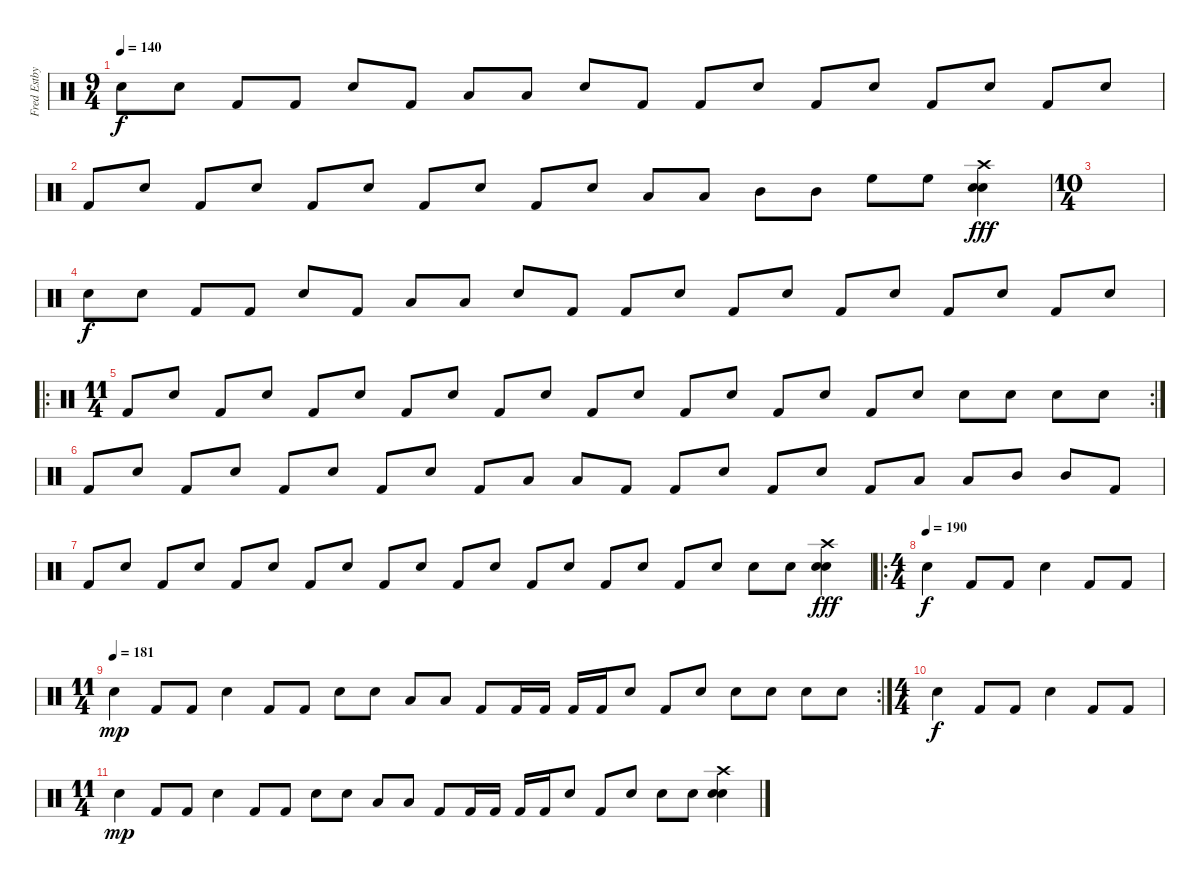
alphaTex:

\track ("Fred Estby" "Fred Estby") {instrument percussion}
\staff {score}
\articulation defaults
\ts (9 4)
\tempo 140
\clef neutral
\ks c "Electric Snare (hit)".8{dy f} "Electric Snare (hit)".8 "Kick (hit) 2".8 "Kick (hit) 2".8 "Electric Snare (hit)".8 "Kick (hit) 2".8 "Low Tom (hit)".8 "Low Tom (hit)".8 "Electric Snare (hit)".8 "Kick (hit) 2".8 "Kick (hit) 2".8 "Electric Snare (hit)".8 "Kick (hit) 2".8 "Electric Snare (hit)".8 "Kick (hit) 2".8 "Electric Snare (hit)".8 "Kick (hit) 2".8 "Electric Snare (hit)".8
|
"Kick (hit) 2".8 "Electric Snare (hit)".8 "Kick (hit) 2".8 "Electric Snare (hit)".8 "Kick (hit) 2".8 "Electric Snare (hit)".8 "Kick (hit) 2".8 "Electric Snare (hit)".8 "Kick (hit) 2".8 "Electric Snare (hit)".8 "Low Tom (hit)".8 "Low Tom (hit)".8 "Mid Tom (hit)".8 "Mid Tom (hit)".8 "High Floor Tom (hit)".8 "High Floor Tom (hit)".8 ("Electric Snare (hit)" "Electric Snare (hit)" "Crash high (hit)").4{dy fff} |
\ts (10 4)
|
"Electric Snare (hit)".8{dy f} "Electric Snare (hit)".8 "Kick (hit) 2".8 "Kick (hit) 2".8 "Electric Snare (hit)".8 "Kick (hit) 2".8 "Low Tom (hit)".8 "Low Tom (hit)".8 "Electric Snare (hit)".8 "Kick (hit) 2".8 "Kick (hit) 2".8 "Electric Snare (hit)".8 "Kick (hit) 2".8 "Electric Snare (hit)".8 "Kick (hit) 2".8 "Electric Snare (hit)".8 "Kick (hit) 2".8 "Electric Snare (hit)".8 "Kick (hit) 2".8 "Electric Snare (hit)".8 |
\ro
\rc 2
\ts (11 4)
"Kick (hit) 2".8 "Electric Snare (hit)".8 "Kick (hit) 2".8 "Electric Snare (hit)".8 "Kick (hit) 2".8 "Electric Snare (hit)".8 "Kick (hit) 2".8 "Electric Snare (hit)".8 "Kick (hit) 2".8 "Electric Snare (hit)".8 "Kick (hit) 2".8 "Electric Snare (hit)".8 "Kick (hit) 2".8 "Electric Snare (hit)".8 "Kick (hit) 2".8 "Electric Snare (hit)".8 "Kick (hit) 2".8 "Electric Snare (hit)".8 "Electric Snare (hit)".8 "Electric Snare (hit)".8 "Electric Snare (hit)".8 "Electric Snare (hit)".8 |
"Kick (hit) 2".8 "Electric Snare (hit)".8 "Kick (hit) 2".8 "Electric Snare (hit)".8 "Kick (hit) 2".8 "Electric Snare (hit)".8 "Kick (hit) 2".8 "Electric Snare (hit)".8 "Kick (hit) 2".8 "Low Tom (hit)".8 "Low Tom (hit)".8 "Kick (hit) 2".8 "Kick (hit) 2".8 "Electric Snare (hit)".8 "Kick (hit) 2".8 "Electric Snare (hit)".8 "Kick (hit) 2".8 "Low Tom (hit)".8 "Low Tom (hit)".8 "Mid Tom (hit)".8 "Mid Tom (hit)".8 "Kick (hit) 2".8 |
"Kick (hit) 2".8 "Electric Snare (hit)".8 "Kick (hit) 2".8 "Electric Snare (hit)".8 "Kick (hit) 2".8 "Electric Snare (hit)".8 "Kick (hit) 2".8 "Electric Snare (hit)".8 "Kick (hit) 2".8 "Electric Snare (hit)".8 "Kick (hit) 2".8 "Electric Snare (hit)".8 "Kick (hit) 2".8 "Electric Snare (hit)".8 "Kick (hit) 2".8 "Electric Snare (hit)".8 "Kick (hit) 2".8 "Electric Snare (hit)".8 "Electric Snare (hit)".8 "Electric Snare (hit)".8 ("Electric Snare (hit)" "Electric Snare (hit)" "Crash high (hit)").4{dy fff} |
\ro
\ts (4 4)
\tempo 160
\tempo (190)
"Electric Snare (hit)".4{dy f} "Kick (hit) 2".8 "Kick (hit) 2".8 "Electric Snare (hit)".4 "Kick (hit) 2".8 "Kick (hit) 2".8 |
\rc 2
\ts (11 4)
\tempo (181)
"Electric Snare (hit)".4{dy mp} "Kick (hit) 2".8 "Kick (hit) 2".8 "Electric Snare (hit)".4 "Kick (hit) 2".8 "Kick (hit) 2".8 "Electric Snare (hit)".8 "Electric Snare (hit)".8 "Low Tom (hit)".8 "Low Tom (hit)".8 "Kick (hit) 2".8 "Kick (hit) 2".16 "Kick (hit) 2".16 "Kick (hit) 2".16 "Kick (hit) 2".16 "Electric Snare (hit)".8 "Kick (hit) 2".8 "Electric Snare (hit)".8 "Electric Snare (hit)".8 "Electric Snare (hit)".8 "Electric Snare (hit)".8 "Electric Snare (hit)".8 |
\ts (4 4)
"Electric Snare (hit)".4{dy f} "Kick (hit) 2".8 "Kick (hit) 2".8 "Electric Snare (hit)".4 "Kick (hit) 2".8 "Kick (hit) 2".8 |
\ts (11 4)
"Electric Snare (hit)".4{dy mp} "Kick (hit) 2".8 "Kick (hit) 2".8 "Electric Snare (hit)".4 "Kick (hit) 2".8 "Kick (hit) 2".8 "Electric Snare (hit)".8 "Electric Snare (hit)".8 "Low Tom (hit)".8 "Low Tom (hit)".8 "Kick (hit) 2".8 "Kick (hit) 2".16 "Kick (hit) 2".16 "Kick (hit) 2".16 "Kick (hit) 2".16 "Electric Snare (hit)".8 "Kick (hit) 2".8 "Electric Snare (hit)".8 "Electric Snare (hit)".8 "Electric Snare (hit)".8 ("Electric Snare (hit)" "Electric Snare (hit)" "Crash high (hit)").4
